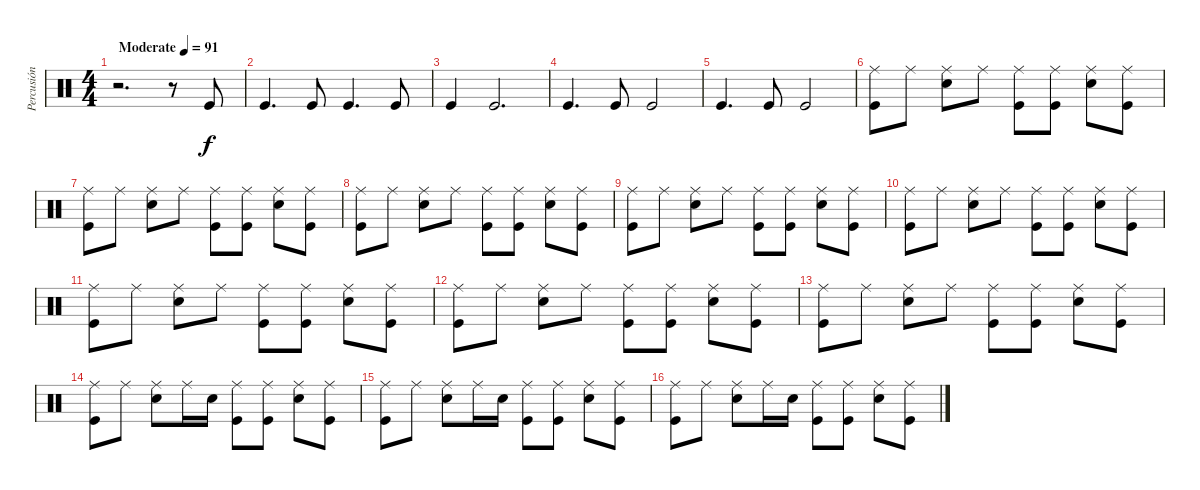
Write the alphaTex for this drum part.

\track ("Percusión" "Percusión") {instrument percussion}
\staff {score}
\articulation defaults
\ts (4 4)
\tempo (91 "Moderate")
\clef neutral
\ks c
r.2{d dy f} r.8 "Kick (hit)".8 |
"Kick (hit)".4{d} "Kick (hit)".8 "Kick (hit)".4{d} "Kick (hit)".8 |
"Kick (hit)".4 "Kick (hit)".2{d} |
"Kick (hit)".4{d} "Kick (hit)".8 "Kick (hit)".2 |
"Kick (hit)".4{d} "Kick (hit)".8 "Kick (hit)".2 |
("Kick (hit)" "Ride (middle)").8 "Ride (middle)".8 ("Ride (middle)" "Snare (hit) 2").8 "Ride (middle)".8 ("Kick (hit)" "Ride (middle)").8 ("Kick (hit)" "Ride (middle)").8 ("Ride (middle)" "Snare (hit) 2").8 ("Kick (hit)" "Ride (middle)").8 |
("Kick (hit)" "Ride (middle)").8 "Ride (middle)".8 ("Ride (middle)" "Snare (hit) 2").8 "Ride (middle)".8 ("Kick (hit)" "Ride (middle)").8 ("Kick (hit)" "Ride (middle)").8 ("Ride (middle)" "Snare (hit) 2").8 ("Kick (hit)" "Ride (middle)").8 |
("Kick (hit)" "Ride (middle)").8 "Ride (middle)".8 ("Ride (middle)" "Snare (hit) 2").8 "Ride (middle)".8 ("Kick (hit)" "Ride (middle)").8 ("Kick (hit)" "Ride (middle)").8 ("Ride (middle)" "Snare (hit) 2").8 ("Kick (hit)" "Ride (middle)").8 |
("Kick (hit)" "Ride (middle)").8 "Ride (middle)".8 ("Ride (middle)" "Snare (hit) 2").8 "Ride (middle)".8 ("Kick (hit)" "Ride (middle)").8 ("Kick (hit)" "Ride (middle)").8 ("Ride (middle)" "Snare (hit) 2").8 ("Kick (hit)" "Ride (middle)").8 |
("Kick (hit)" "Ride (middle)").8 "Ride (middle)".8 ("Ride (middle)" "Snare (hit) 2").8 "Ride (middle)".8 ("Kick (hit)" "Ride (middle)").8 ("Kick (hit)" "Ride (middle)").8 ("Ride (middle)" "Snare (hit) 2").8 ("Kick (hit)" "Ride (middle)").8 |
("Kick (hit)" "Ride (middle)").8 "Ride (middle)".8 ("Ride (middle)" "Snare (hit) 2").8 "Ride (middle)".8 ("Kick (hit)" "Ride (middle)").8 ("Kick (hit)" "Ride (middle)").8 ("Ride (middle)" "Snare (hit) 2").8 ("Kick (hit)" "Ride (middle)").8 |
("Kick (hit)" "Ride (middle)").8 "Ride (middle)".8 ("Ride (middle)" "Snare (hit) 2").8 "Ride (middle)".8 ("Kick (hit)" "Ride (middle)").8 ("Kick (hit)" "Ride (middle)").8 ("Ride (middle)" "Snare (hit) 2").8 ("Kick (hit)" "Ride (middle)").8 |
("Kick (hit)" "Ride (middle)").8 "Ride (middle)".8 ("Ride (middle)" "Snare (hit) 2").8 "Ride (middle)".8 ("Kick (hit)" "Ride (middle)").8 ("Kick (hit)" "Ride (middle)").8 ("Ride (middle)" "Snare (hit) 2").8 ("Kick (hit)" "Ride (middle)").8 |
("Kick (hit)" "Ride (middle)").8 "Ride (middle)".8 ("Ride (middle)" "Snare (hit) 2").8 "Ride (middle)".16 "Snare (hit) 2".16 ("Kick (hit)" "Ride (middle)").8 ("Kick (hit)" "Ride (middle)").8 ("Ride (middle)" "Snare (hit) 2").8 ("Kick (hit)" "Ride (middle)").8 |
("Kick (hit)" "Ride (middle)").8 "Ride (middle)".8 ("Ride (middle)" "Snare (hit) 2").8 "Ride (middle)".16 "Snare (hit) 2".16 ("Kick (hit)" "Ride (middle)").8 ("Kick (hit)" "Ride (middle)").8 ("Ride (middle)" "Snare (hit) 2").8 ("Kick (hit)" "Ride (middle)").8 |
("Kick (hit)" "Ride (middle)").8 "Ride (middle)".8 ("Ride (middle)" "Snare (hit) 2").8 "Ride (middle)".16 "Snare (hit) 2".16 ("Kick (hit)" "Ride (middle)").8 ("Kick (hit)" "Ride (middle)").8 ("Ride (middle)" "Snare (hit) 2").8 ("Kick (hit)" "Ride (middle)").8
